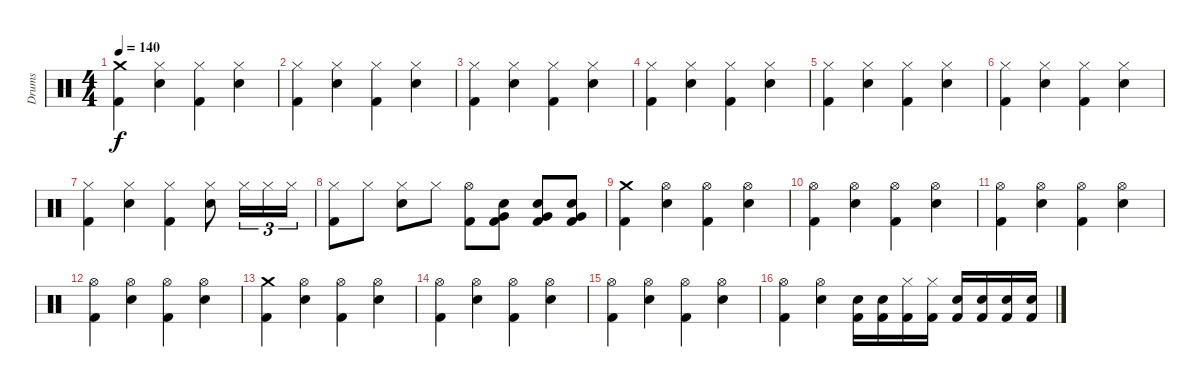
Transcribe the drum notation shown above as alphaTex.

\track ("Drums" "Drums") {instrument percussion}
\staff {score}
\articulation defaults
\ts (4 4)
\tempo 140
\clef neutral
\ks c
("Crash medium (hit)" "Kick (hit) 2").4{dy f} ("Hi-Hat (closed)" "Electric Snare (hit)").4 ("Hi-Hat (closed)" "Kick (hit) 2").4 ("Hi-Hat (closed)" "Electric Snare (hit)").4 |
("Hi-Hat (closed)" "Kick (hit) 2").4 ("Hi-Hat (closed)" "Electric Snare (hit)").4 ("Hi-Hat (closed)" "Kick (hit) 2").4 ("Hi-Hat (closed)" "Electric Snare (hit)").4 |
("Hi-Hat (closed)" "Kick (hit) 2").4 ("Hi-Hat (closed)" "Electric Snare (hit)").4 ("Hi-Hat (closed)" "Kick (hit) 2").4 ("Hi-Hat (closed)" "Electric Snare (hit)").4 |
("Hi-Hat (closed)" "Kick (hit) 2").4 ("Hi-Hat (closed)" "Electric Snare (hit)").4 ("Hi-Hat (closed)" "Kick (hit) 2").4 ("Hi-Hat (closed)" "Electric Snare (hit)").4 |
("Hi-Hat (closed)" "Kick (hit) 2").4 ("Hi-Hat (closed)" "Electric Snare (hit)").4 ("Hi-Hat (closed)" "Kick (hit) 2").4 ("Hi-Hat (closed)" "Electric Snare (hit)").4 |
("Hi-Hat (closed)" "Kick (hit) 2").4 ("Hi-Hat (closed)" "Electric Snare (hit)").4 ("Hi-Hat (closed)" "Kick (hit) 2").4 ("Hi-Hat (closed)" "Electric Snare (hit)").4 |
("Hi-Hat (closed)" "Kick (hit) 2").4 ("Hi-Hat (closed)" "Electric Snare (hit)").4 ("Hi-Hat (closed)" "Kick (hit) 2").4 ("Hi-Hat (closed)" "Electric Snare (hit)").8 "Hi-Hat (closed)".16{tu (3 2)} "Hi-Hat (closed)".16{tu (3 2)} "Hi-Hat (closed)".16{tu (3 2)} |
("Hi-Hat (closed)" "Kick (hit) 2").8 "Hi-Hat (closed)".8 ("Hi-Hat (closed)" "Electric Snare (hit)").8 "Hi-Hat (closed)".8 ("Hi-Hat (open)" "Kick (hit) 2").8 ("Very Low Tom (hit)" "Electric Snare (hit)" "Kick (hit) 2").8 ("Very Low Tom (hit)" "Electric Snare (hit)" "Kick (hit) 2").8 ("Very Low Tom (hit)" "Electric Snare (hit)" "Kick (hit) 2").8 |
("Crash medium (hit)" "Kick (hit) 2").4 ("Hi-Hat (open)" "Electric Snare (hit)").4 ("Hi-Hat (open)" "Kick (hit) 2").4 ("Hi-Hat (open)" "Electric Snare (hit)").4 |
("Hi-Hat (open)" "Kick (hit) 2").4 ("Hi-Hat (open)" "Electric Snare (hit)").4 ("Hi-Hat (open)" "Kick (hit) 2").4 ("Hi-Hat (open)" "Electric Snare (hit)").4 |
("Hi-Hat (open)" "Kick (hit) 2").4 ("Hi-Hat (open)" "Electric Snare (hit)").4 ("Hi-Hat (open)" "Kick (hit) 2").4 ("Hi-Hat (open)" "Electric Snare (hit)").4 |
("Hi-Hat (open)" "Kick (hit) 2").4 ("Hi-Hat (open)" "Electric Snare (hit)").4 ("Hi-Hat (open)" "Kick (hit) 2").4 ("Hi-Hat (open)" "Electric Snare (hit)").4 |
("Crash medium (hit)" "Kick (hit) 2").4 ("Hi-Hat (open)" "Electric Snare (hit)").4 ("Hi-Hat (open)" "Kick (hit) 2").4 ("Hi-Hat (open)" "Electric Snare (hit)").4 |
("Hi-Hat (open)" "Kick (hit) 2").4 ("Hi-Hat (open)" "Electric Snare (hit)").4 ("Hi-Hat (open)" "Kick (hit) 2").4 ("Hi-Hat (open)" "Electric Snare (hit)").4 |
("Hi-Hat (open)" "Kick (hit) 2").4 ("Hi-Hat (open)" "Electric Snare (hit)").4 ("Hi-Hat (open)" "Kick (hit) 2").4 ("Hi-Hat (open)" "Electric Snare (hit)").4 |
("Hi-Hat (open)" "Kick (hit) 2").4 ("Hi-Hat (open)" "Electric Snare (hit)").4 ("Electric Snare (hit)" "Kick (hit) 2").16 ("Electric Snare (hit)" "Kick (hit) 2").16 ("Hi-Hat (closed)" "Kick (hit) 2").16 ("Hi-Hat (closed)" "Kick (hit) 2").16 ("Electric Snare (hit)" "Kick (hit) 2").16 ("Electric Snare (hit)" "Kick (hit) 2").16 ("Electric Snare (hit)" "Kick (hit) 2").16 ("Electric Snare (hit)" "Kick (hit) 2").16
